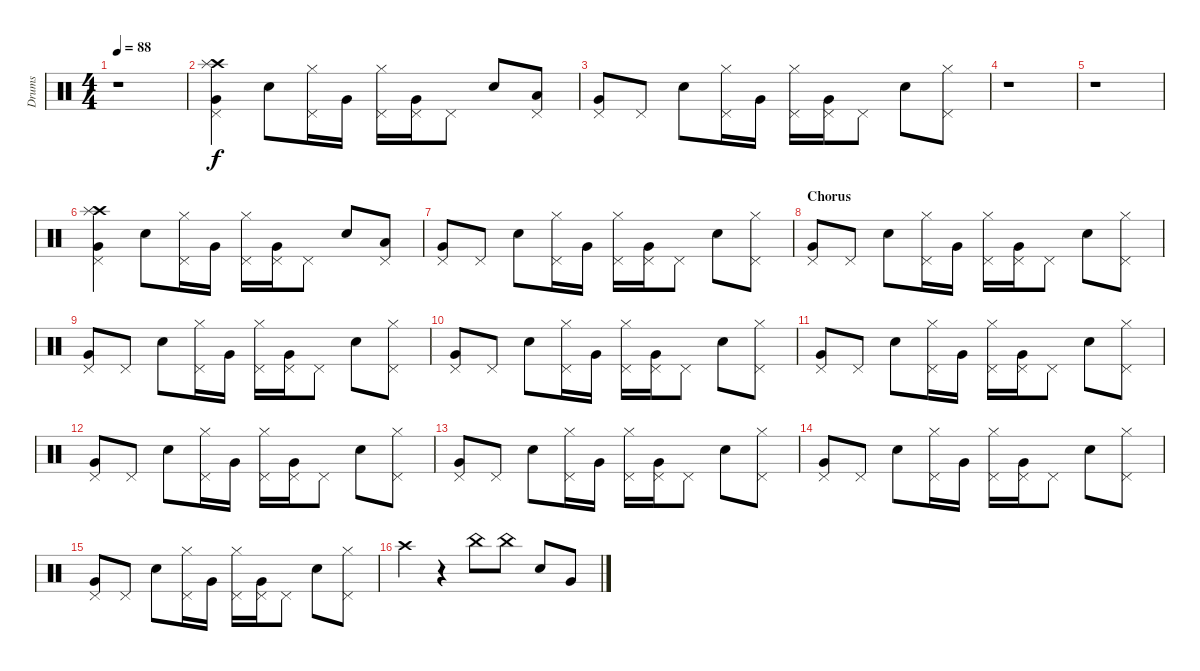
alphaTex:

\track ("Drums" "Drums") {instrument percussion}
\staff {score}
\articulation defaults
\ts (4 4)
\tempo 88
\clef neutral
\ks c
r.1{dy f} |
("Crash high (hit)" "Very Low Tom (hit)" "Pedal Hi-Hat (hit)" "Splash (hit)").4 "Electric Snare (hit)".8 ("Hi-Hat (closed)" "Pedal Hi-Hat (hit)").16 "Very Low Tom (hit)".16 ("Hi-Hat (closed)" "Pedal Hi-Hat (hit)").16 ("Very Low Tom (hit)" "Pedal Hi-Hat (hit)").16 "Pedal Hi-Hat (hit)".8 "Electric Snare (hit)".8 ("Low Floor Tom (hit)" "Pedal Hi-Hat (hit)").8 |
("Very Low Tom (hit)" "Pedal Hi-Hat (hit)").8 "Pedal Hi-Hat (hit)".8 "Electric Snare (hit)".8 ("Hi-Hat (closed)" "Pedal Hi-Hat (hit)").16 "Very Low Tom (hit)".16 ("Hi-Hat (closed)" "Pedal Hi-Hat (hit)").16 ("Very Low Tom (hit)" "Pedal Hi-Hat (hit)").16 "Pedal Hi-Hat (hit)".8 "Electric Snare (hit)".8 ("Hi-Hat (closed)" "Pedal Hi-Hat (hit)").8 |
r.1 |
r.1 |
("Crash high (hit)" "Very Low Tom (hit)" "Pedal Hi-Hat (hit)" "Splash (hit)").4 "Electric Snare (hit)".8 ("Hi-Hat (closed)" "Pedal Hi-Hat (hit)").16 "Very Low Tom (hit)".16 ("Hi-Hat (closed)" "Pedal Hi-Hat (hit)").16 ("Very Low Tom (hit)" "Pedal Hi-Hat (hit)").16 "Pedal Hi-Hat (hit)".8 "Electric Snare (hit)".8 ("Low Floor Tom (hit)" "Pedal Hi-Hat (hit)").8 |
("Very Low Tom (hit)" "Pedal Hi-Hat (hit)").8 "Pedal Hi-Hat (hit)".8 "Electric Snare (hit)".8 ("Hi-Hat (closed)" "Pedal Hi-Hat (hit)").16 "Very Low Tom (hit)".16 ("Hi-Hat (closed)" "Pedal Hi-Hat (hit)").16 ("Very Low Tom (hit)" "Pedal Hi-Hat (hit)").16 "Pedal Hi-Hat (hit)".8 "Electric Snare (hit)".8 ("Hi-Hat (closed)" "Pedal Hi-Hat (hit)").8 |
\section ("" "Chorus")
("Very Low Tom (hit)" "Pedal Hi-Hat (hit)").8 "Pedal Hi-Hat (hit)".8 "Electric Snare (hit)".8 ("Hi-Hat (closed)" "Pedal Hi-Hat (hit)").16 "Very Low Tom (hit)".16 ("Hi-Hat (closed)" "Pedal Hi-Hat (hit)").16 ("Very Low Tom (hit)" "Pedal Hi-Hat (hit)").16 "Pedal Hi-Hat (hit)".8 "Electric Snare (hit)".8 ("Hi-Hat (closed)" "Pedal Hi-Hat (hit)").8 |
("Very Low Tom (hit)" "Pedal Hi-Hat (hit)").8 "Pedal Hi-Hat (hit)".8 "Electric Snare (hit)".8 ("Hi-Hat (closed)" "Pedal Hi-Hat (hit)").16 "Very Low Tom (hit)".16 ("Hi-Hat (closed)" "Pedal Hi-Hat (hit)").16 ("Very Low Tom (hit)" "Pedal Hi-Hat (hit)").16 "Pedal Hi-Hat (hit)".8 "Electric Snare (hit)".8 ("Hi-Hat (closed)" "Pedal Hi-Hat (hit)").8 |
("Very Low Tom (hit)" "Pedal Hi-Hat (hit)").8 "Pedal Hi-Hat (hit)".8 "Electric Snare (hit)".8 ("Hi-Hat (closed)" "Pedal Hi-Hat (hit)").16 "Very Low Tom (hit)".16 ("Hi-Hat (closed)" "Pedal Hi-Hat (hit)").16 ("Very Low Tom (hit)" "Pedal Hi-Hat (hit)").16 "Pedal Hi-Hat (hit)".8 "Electric Snare (hit)".8 ("Hi-Hat (closed)" "Pedal Hi-Hat (hit)").8 |
("Very Low Tom (hit)" "Pedal Hi-Hat (hit)").8 "Pedal Hi-Hat (hit)".8 "Electric Snare (hit)".8 ("Hi-Hat (closed)" "Pedal Hi-Hat (hit)").16 "Very Low Tom (hit)".16 ("Hi-Hat (closed)" "Pedal Hi-Hat (hit)").16 ("Very Low Tom (hit)" "Pedal Hi-Hat (hit)").16 "Pedal Hi-Hat (hit)".8 "Electric Snare (hit)".8 ("Hi-Hat (closed)" "Pedal Hi-Hat (hit)").8 |
("Very Low Tom (hit)" "Pedal Hi-Hat (hit)").8 "Pedal Hi-Hat (hit)".8 "Electric Snare (hit)".8 ("Hi-Hat (closed)" "Pedal Hi-Hat (hit)").16 "Very Low Tom (hit)".16 ("Hi-Hat (closed)" "Pedal Hi-Hat (hit)").16 ("Very Low Tom (hit)" "Pedal Hi-Hat (hit)").16 "Pedal Hi-Hat (hit)".8 "Electric Snare (hit)".8 ("Hi-Hat (closed)" "Pedal Hi-Hat (hit)").8 |
("Very Low Tom (hit)" "Pedal Hi-Hat (hit)").8 "Pedal Hi-Hat (hit)".8 "Electric Snare (hit)".8 ("Hi-Hat (closed)" "Pedal Hi-Hat (hit)").16 "Very Low Tom (hit)".16 ("Hi-Hat (closed)" "Pedal Hi-Hat (hit)").16 ("Very Low Tom (hit)" "Pedal Hi-Hat (hit)").16 "Pedal Hi-Hat (hit)".8 "Electric Snare (hit)".8 ("Hi-Hat (closed)" "Pedal Hi-Hat (hit)").8 |
("Very Low Tom (hit)" "Pedal Hi-Hat (hit)").8 "Pedal Hi-Hat (hit)".8 "Electric Snare (hit)".8 ("Hi-Hat (closed)" "Pedal Hi-Hat (hit)").16 "Very Low Tom (hit)".16 ("Hi-Hat (closed)" "Pedal Hi-Hat (hit)").16 ("Very Low Tom (hit)" "Pedal Hi-Hat (hit)").16 "Pedal Hi-Hat (hit)".8 "Electric Snare (hit)".8 ("Hi-Hat (closed)" "Pedal Hi-Hat (hit)").8 |
("Very Low Tom (hit)" "Pedal Hi-Hat (hit)").8 "Pedal Hi-Hat (hit)".8 "Electric Snare (hit)".8 ("Hi-Hat (closed)" "Pedal Hi-Hat (hit)").16 "Very Low Tom (hit)".16 ("Hi-Hat (closed)" "Pedal Hi-Hat (hit)").16 ("Very Low Tom (hit)" "Pedal Hi-Hat (hit)").16 "Pedal Hi-Hat (hit)".8 "Electric Snare (hit)".8 ("Hi-Hat (closed)" "Pedal Hi-Hat (hit)").8 |
"Crash high (hit)".4 r.4 "China (hit)".8 "China (hit)".8 "Electric Snare (hit)".8 "Very Low Tom (hit)".8
